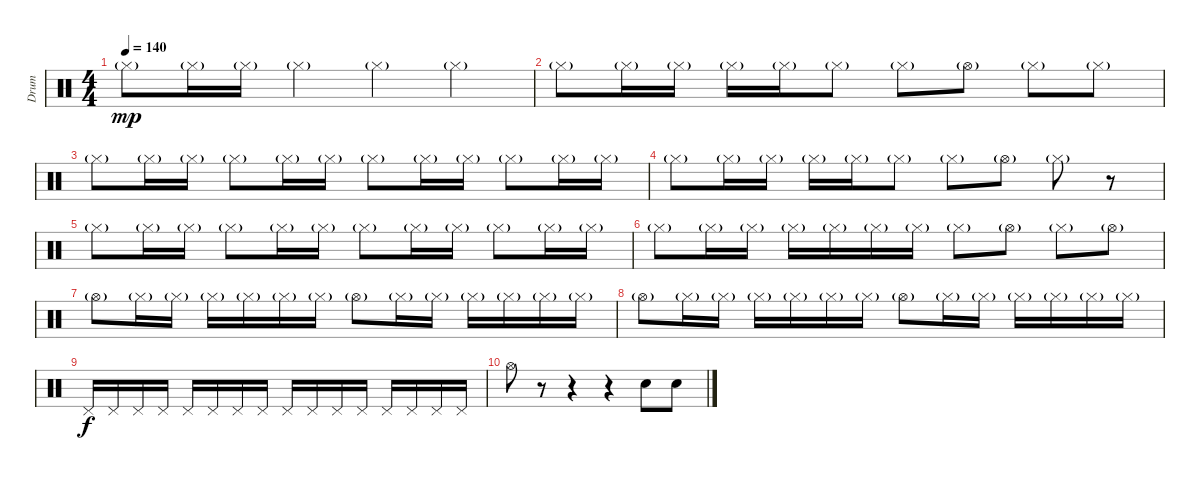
\track ("Drum" "Drum") {instrument percussion}
\staff {score}
\articulation defaults
\ts (4 4)
\tempo 140
\clef neutral
\ks c "Hi-Hat (closed)"{g}.8{dy mp} "Hi-Hat (closed)"{g}.16 "Hi-Hat (closed)"{g}.16 "Hi-Hat (closed)"{g}.4 "Hi-Hat (closed)"{g}.4 "Hi-Hat (closed)"{g}.4
|
"Hi-Hat (closed)"{g}.8 "Hi-Hat (closed)"{g}.16 "Hi-Hat (closed)"{g}.16 "Hi-Hat (closed)"{g}.16 "Hi-Hat (closed)"{g}.16 "Hi-Hat (closed)"{g}.8 "Hi-Hat (closed)"{g}.8 "Hi-Hat (open)"{g}.8 "Hi-Hat (closed)"{g}.8 "Hi-Hat (closed)"{g}.8 |
"Hi-Hat (closed)"{g}.8 "Hi-Hat (closed)"{g}.16 "Hi-Hat (closed)"{g}.16 "Hi-Hat (closed)"{g}.8 "Hi-Hat (closed)"{g}.16 "Hi-Hat (closed)"{g}.16 "Hi-Hat (closed)"{g}.8 "Hi-Hat (closed)"{g}.16 "Hi-Hat (closed)"{g}.16 "Hi-Hat (closed)"{g}.8 "Hi-Hat (closed)"{g}.16 "Hi-Hat (closed)"{g}.16 |
"Hi-Hat (closed)"{g}.8 "Hi-Hat (closed)"{g}.16 "Hi-Hat (closed)"{g}.16 "Hi-Hat (closed)"{g}.16 "Hi-Hat (closed)"{g}.16 "Hi-Hat (closed)"{g}.8 "Hi-Hat (closed)"{g}.8 "Hi-Hat (open)"{g}.8 "Hi-Hat (closed)"{g}.8 r.8 |
"Hi-Hat (closed)"{g}.8 "Hi-Hat (closed)"{g}.16 "Hi-Hat (closed)"{g}.16 "Hi-Hat (closed)"{g}.8 "Hi-Hat (closed)"{g}.16 "Hi-Hat (closed)"{g}.16 "Hi-Hat (closed)"{g}.8 "Hi-Hat (closed)"{g}.16 "Hi-Hat (closed)"{g}.16 "Hi-Hat (closed)"{g}.8 "Hi-Hat (closed)"{g}.16 "Hi-Hat (closed)"{g}.16 |
"Hi-Hat (closed)"{g}.8 "Hi-Hat (closed)"{g}.16 "Hi-Hat (closed)"{g}.16 "Hi-Hat (closed)"{g}.16 "Hi-Hat (closed)"{g}.16 "Hi-Hat (closed)"{g}.16 "Hi-Hat (closed)"{g}.16 "Hi-Hat (closed)"{g}.8 "Hi-Hat (open)"{g}.8 "Hi-Hat (closed)"{g}.8 "Hi-Hat (open)"{g}.8 |
"Hi-Hat (open)"{g}.8 "Hi-Hat (closed)"{g}.16 "Hi-Hat (closed)"{g}.16 "Hi-Hat (closed)"{g}.16 "Hi-Hat (closed)"{g}.16 "Hi-Hat (closed)"{g}.16 "Hi-Hat (closed)"{g}.16 "Hi-Hat (open)"{g}.8 "Hi-Hat (closed)"{g}.16 "Hi-Hat (closed)"{g}.16 "Hi-Hat (closed)"{g}.16 "Hi-Hat (closed)"{g}.16 "Hi-Hat (closed)"{g}.16 "Hi-Hat (closed)"{g}.16 |
"Hi-Hat (open)"{g}.8 "Hi-Hat (closed)"{g}.16 "Hi-Hat (closed)"{g}.16 "Hi-Hat (closed)"{g}.16 "Hi-Hat (closed)"{g}.16 "Hi-Hat (closed)"{g}.16 "Hi-Hat (closed)"{g}.16 "Hi-Hat (open)"{g}.8 "Hi-Hat (closed)"{g}.16 "Hi-Hat (closed)"{g}.16 "Hi-Hat (closed)"{g}.16 "Hi-Hat (closed)"{g}.16 "Hi-Hat (closed)"{g}.16 "Hi-Hat (closed)"{g}.16 |
"Pedal Hi-Hat (hit)".16{dy f} "Pedal Hi-Hat (hit)".16 "Pedal Hi-Hat (hit)".16 "Pedal Hi-Hat (hit)".16 "Pedal Hi-Hat (hit)".16 "Pedal Hi-Hat (hit)".16 "Pedal Hi-Hat (hit)".16 "Pedal Hi-Hat (hit)".16 "Pedal Hi-Hat (hit)".16 "Pedal Hi-Hat (hit)".16 "Pedal Hi-Hat (hit)".16 "Pedal Hi-Hat (hit)".16 "Pedal Hi-Hat (hit)".16 "Pedal Hi-Hat (hit)".16 "Pedal Hi-Hat (hit)".16 "Pedal Hi-Hat (hit)".16 |
"Hi-Hat (open)".8 r.8 r.4 r.4 "Electric Snare (hit)".8 "Electric Snare (hit)".8
